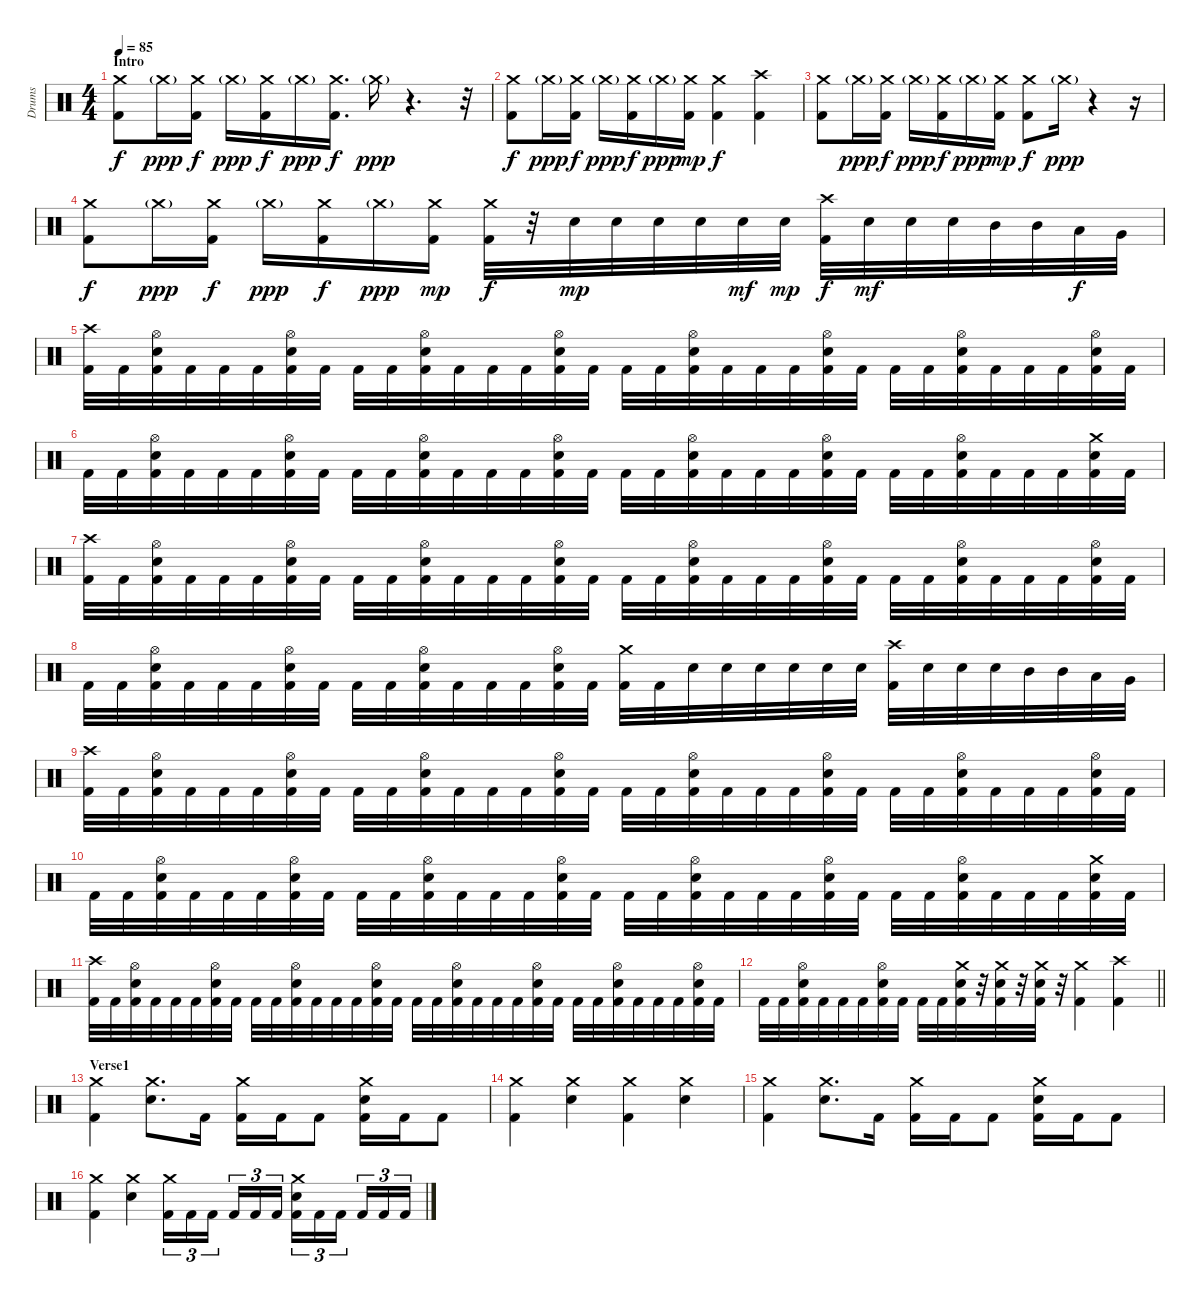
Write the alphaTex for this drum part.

\track ("Drums" "Drums") {instrument percussion}
\staff {score}
\articulation defaults
\ts (4 4)
\section ("" "Intro")
\tempo 85
\clef neutral
\ks c
("Crash medium (hit)" "Kick (hit) 2").8{dy f} "Crash medium (hit)"{g}.16{dy ppp} ("Crash medium (hit)" "Kick (hit) 2").16{dy f} "Crash medium (hit)"{g}.16{dy ppp} ("Crash medium (hit)" "Kick (hit) 2").16{dy f} "Crash medium (hit)"{g}.16{dy ppp} ("Crash medium (hit)" "Kick (hit) 2").16{d dy f} "Crash medium (hit)"{g}.16{dy ppp} r.4{d} r.32 |
("Crash medium (hit)" "Kick (hit) 2").8{dy f} "Crash medium (hit)"{g}.16{dy ppp} ("Crash medium (hit)" "Kick (hit) 2").16{dy f} "Crash medium (hit)"{g}.16{dy ppp} ("Crash medium (hit)" "Kick (hit) 2").16{dy f} "Crash medium (hit)"{g}.16{dy ppp} ("Crash medium (hit)" "Kick (hit) 2").16{dy mp} ("Crash medium (hit)" "Kick (hit) 2").4{dy f} ("Crash high (hit)" "Kick (hit) 2").4 |
("Crash medium (hit)" "Kick (hit) 2").8 "Crash medium (hit)"{g}.16{dy ppp} ("Crash medium (hit)" "Kick (hit) 2").16{dy f} "Crash medium (hit)"{g}.16{dy ppp} ("Crash medium (hit)" "Kick (hit) 2").16{dy f} "Crash medium (hit)"{g}.16{dy ppp} ("Crash medium (hit)" "Kick (hit) 2").16{dy mp} ("Crash medium (hit)" "Kick (hit) 2").8{dy f} "Crash medium (hit)"{g}.16{dy ppp} r.4 r.16 |
("Crash medium (hit)" "Kick (hit) 2").8{dy f} "Crash medium (hit)"{g}.16{dy ppp} ("Crash medium (hit)" "Kick (hit) 2").16{dy f} "Crash medium (hit)"{g}.16{dy ppp} ("Crash medium (hit)" "Kick (hit) 2").16{dy f} "Crash medium (hit)"{g}.16{dy ppp} ("Crash medium (hit)" "Kick (hit) 2").16{dy mp} ("Crash medium (hit)" "Kick (hit) 2").32{dy f} r.32 "Electric Snare (hit)".32{dy mp} "Electric Snare (hit)".32 "Electric Snare (hit)".32 "Electric Snare (hit)".32 "Electric Snare (hit)".32{dy mf} "Electric Snare (hit)".32{dy mp} ("Crash high (hit)" "Kick (hit) 2").32{dy f} "Electric Snare (hit)".32{dy mf} "Electric Snare (hit)".32 "Electric Snare (hit)".32 "Mid Tom (hit)".32 "Mid Tom (hit)".32 "Low Tom (hit)".32{dy f} "Very Low Tom (hit)".32 |
("Crash high (hit)" "Kick (hit) 2").32 "Kick (hit) 2".32 ("Hi-Hat (open)" "Electric Snare (hit)" "Kick (hit) 2").32 "Kick (hit) 2".32 "Kick (hit) 2".32 "Kick (hit) 2".32 ("Hi-Hat (open)" "Electric Snare (hit)" "Kick (hit) 2").32 "Kick (hit) 2".32 "Kick (hit) 2".32 "Kick (hit) 2".32 ("Hi-Hat (open)" "Electric Snare (hit)" "Kick (hit) 2").32 "Kick (hit) 2".32 "Kick (hit) 2".32 "Kick (hit) 2".32 ("Hi-Hat (open)" "Electric Snare (hit)" "Kick (hit) 2").32 "Kick (hit) 2".32 "Kick (hit) 2".32 "Kick (hit) 2".32 ("Hi-Hat (open)" "Electric Snare (hit)" "Kick (hit) 2").32 "Kick (hit) 2".32 "Kick (hit) 2".32 "Kick (hit) 2".32 ("Hi-Hat (open)" "Electric Snare (hit)" "Kick (hit) 2").32 "Kick (hit) 2".32 "Kick (hit) 2".32 "Kick (hit) 2".32 ("Hi-Hat (open)" "Electric Snare (hit)" "Kick (hit) 2").32 "Kick (hit) 2".32 "Kick (hit) 2".32 "Kick (hit) 2".32 ("Hi-Hat (open)" "Electric Snare (hit)" "Kick (hit) 2").32 "Kick (hit) 2".32 |
"Kick (hit) 2".32 "Kick (hit) 2".32 ("Hi-Hat (open)" "Electric Snare (hit)" "Kick (hit) 2").32 "Kick (hit) 2".32 "Kick (hit) 2".32 "Kick (hit) 2".32 ("Hi-Hat (open)" "Electric Snare (hit)" "Kick (hit) 2").32 "Kick (hit) 2".32 "Kick (hit) 2".32 "Kick (hit) 2".32 ("Hi-Hat (open)" "Electric Snare (hit)" "Kick (hit) 2").32 "Kick (hit) 2".32 "Kick (hit) 2".32 "Kick (hit) 2".32 ("Hi-Hat (open)" "Electric Snare (hit)" "Kick (hit) 2").32 "Kick (hit) 2".32 "Kick (hit) 2".32 "Kick (hit) 2".32 ("Hi-Hat (open)" "Electric Snare (hit)" "Kick (hit) 2").32 "Kick (hit) 2".32 "Kick (hit) 2".32 "Kick (hit) 2".32 ("Hi-Hat (open)" "Electric Snare (hit)" "Kick (hit) 2").32 "Kick (hit) 2".32 "Kick (hit) 2".32 "Kick (hit) 2".32 ("Hi-Hat (open)" "Electric Snare (hit)" "Kick (hit) 2").32 "Kick (hit) 2".32 "Kick (hit) 2".32 "Kick (hit) 2".32 ("Crash medium (hit)" "Electric Snare (hit)" "Kick (hit) 2").32 "Kick (hit) 2".32 |
("Crash high (hit)" "Kick (hit) 2").32 "Kick (hit) 2".32 ("Hi-Hat (open)" "Electric Snare (hit)" "Kick (hit) 2").32 "Kick (hit) 2".32 "Kick (hit) 2".32 "Kick (hit) 2".32 ("Hi-Hat (open)" "Electric Snare (hit)" "Kick (hit) 2").32 "Kick (hit) 2".32 "Kick (hit) 2".32 "Kick (hit) 2".32 ("Hi-Hat (open)" "Electric Snare (hit)" "Kick (hit) 2").32 "Kick (hit) 2".32 "Kick (hit) 2".32 "Kick (hit) 2".32 ("Hi-Hat (open)" "Electric Snare (hit)" "Kick (hit) 2").32 "Kick (hit) 2".32 "Kick (hit) 2".32 "Kick (hit) 2".32 ("Hi-Hat (open)" "Electric Snare (hit)" "Kick (hit) 2").32 "Kick (hit) 2".32 "Kick (hit) 2".32 "Kick (hit) 2".32 ("Hi-Hat (open)" "Electric Snare (hit)" "Kick (hit) 2").32 "Kick (hit) 2".32 "Kick (hit) 2".32 "Kick (hit) 2".32 ("Hi-Hat (open)" "Electric Snare (hit)" "Kick (hit) 2").32 "Kick (hit) 2".32 "Kick (hit) 2".32 "Kick (hit) 2".32 ("Hi-Hat (open)" "Electric Snare (hit)" "Kick (hit) 2").32 "Kick (hit) 2".32 |
"Kick (hit) 2".32 "Kick (hit) 2".32 ("Hi-Hat (open)" "Electric Snare (hit)" "Kick (hit) 2").32 "Kick (hit) 2".32 "Kick (hit) 2".32 "Kick (hit) 2".32 ("Hi-Hat (open)" "Electric Snare (hit)" "Kick (hit) 2").32 "Kick (hit) 2".32 "Kick (hit) 2".32 "Kick (hit) 2".32 ("Hi-Hat (open)" "Electric Snare (hit)" "Kick (hit) 2").32 "Kick (hit) 2".32 "Kick (hit) 2".32 "Kick (hit) 2".32 ("Hi-Hat (open)" "Electric Snare (hit)" "Kick (hit) 2").32 "Kick (hit) 2".32 ("Crash medium (hit)" "Kick (hit) 2").32 "Kick (hit) 2".32 "Electric Snare (hit)".32 "Electric Snare (hit)".32 "Electric Snare (hit)".32 "Electric Snare (hit)".32 "Electric Snare (hit)".32 "Electric Snare (hit)".32 ("Crash high (hit)" "Kick (hit) 2").32 "Electric Snare (hit)".32 "Electric Snare (hit)".32 "Electric Snare (hit)".32 "Mid Tom (hit)".32 "Mid Tom (hit)".32 "Low Tom (hit)".32 "Very Low Tom (hit)".32 |
("Crash high (hit)" "Kick (hit) 2").32 "Kick (hit) 2".32 ("Hi-Hat (open)" "Electric Snare (hit)" "Kick (hit) 2").32 "Kick (hit) 2".32 "Kick (hit) 2".32 "Kick (hit) 2".32 ("Hi-Hat (open)" "Electric Snare (hit)" "Kick (hit) 2").32 "Kick (hit) 2".32 "Kick (hit) 2".32 "Kick (hit) 2".32 ("Hi-Hat (open)" "Electric Snare (hit)" "Kick (hit) 2").32 "Kick (hit) 2".32 "Kick (hit) 2".32 "Kick (hit) 2".32 ("Hi-Hat (open)" "Electric Snare (hit)" "Kick (hit) 2").32 "Kick (hit) 2".32 "Kick (hit) 2".32 "Kick (hit) 2".32 ("Hi-Hat (open)" "Electric Snare (hit)" "Kick (hit) 2").32 "Kick (hit) 2".32 "Kick (hit) 2".32 "Kick (hit) 2".32 ("Hi-Hat (open)" "Electric Snare (hit)" "Kick (hit) 2").32 "Kick (hit) 2".32 "Kick (hit) 2".32 "Kick (hit) 2".32 ("Hi-Hat (open)" "Electric Snare (hit)" "Kick (hit) 2").32 "Kick (hit) 2".32 "Kick (hit) 2".32 "Kick (hit) 2".32 ("Hi-Hat (open)" "Electric Snare (hit)" "Kick (hit) 2").32 "Kick (hit) 2".32 |
"Kick (hit) 2".32 "Kick (hit) 2".32 ("Hi-Hat (open)" "Electric Snare (hit)" "Kick (hit) 2").32 "Kick (hit) 2".32 "Kick (hit) 2".32 "Kick (hit) 2".32 ("Hi-Hat (open)" "Electric Snare (hit)" "Kick (hit) 2").32 "Kick (hit) 2".32 "Kick (hit) 2".32 "Kick (hit) 2".32 ("Hi-Hat (open)" "Electric Snare (hit)" "Kick (hit) 2").32 "Kick (hit) 2".32 "Kick (hit) 2".32 "Kick (hit) 2".32 ("Hi-Hat (open)" "Electric Snare (hit)" "Kick (hit) 2").32 "Kick (hit) 2".32 "Kick (hit) 2".32 "Kick (hit) 2".32 ("Hi-Hat (open)" "Electric Snare (hit)" "Kick (hit) 2").32 "Kick (hit) 2".32 "Kick (hit) 2".32 "Kick (hit) 2".32 ("Hi-Hat (open)" "Electric Snare (hit)" "Kick (hit) 2").32 "Kick (hit) 2".32 "Kick (hit) 2".32 "Kick (hit) 2".32 ("Hi-Hat (open)" "Electric Snare (hit)" "Kick (hit) 2").32 "Kick (hit) 2".32 "Kick (hit) 2".32 "Kick (hit) 2".32 ("Crash medium (hit)" "Electric Snare (hit)" "Kick (hit) 2").32 "Kick (hit) 2".32 |
("Crash high (hit)" "Kick (hit) 2").32 "Kick (hit) 2".32 ("Hi-Hat (open)" "Electric Snare (hit)" "Kick (hit) 2").32 "Kick (hit) 2".32 "Kick (hit) 2".32 "Kick (hit) 2".32 ("Hi-Hat (open)" "Electric Snare (hit)" "Kick (hit) 2").32 "Kick (hit) 2".32 "Kick (hit) 2".32 "Kick (hit) 2".32 ("Hi-Hat (open)" "Electric Snare (hit)" "Kick (hit) 2").32 "Kick (hit) 2".32 "Kick (hit) 2".32 "Kick (hit) 2".32 ("Hi-Hat (open)" "Electric Snare (hit)" "Kick (hit) 2").32 "Kick (hit) 2".32 "Kick (hit) 2".32 "Kick (hit) 2".32 ("Hi-Hat (open)" "Electric Snare (hit)" "Kick (hit) 2").32 "Kick (hit) 2".32 "Kick (hit) 2".32 "Kick (hit) 2".32 ("Hi-Hat (open)" "Electric Snare (hit)" "Kick (hit) 2").32 "Kick (hit) 2".32 "Kick (hit) 2".32 "Kick (hit) 2".32 ("Hi-Hat (open)" "Electric Snare (hit)" "Kick (hit) 2").32 "Kick (hit) 2".32 "Kick (hit) 2".32 "Kick (hit) 2".32 ("Hi-Hat (open)" "Electric Snare (hit)" "Kick (hit) 2").32 "Kick (hit) 2".32 |
\barLineRight lightlight "Kick (hit) 2".32 "Kick (hit) 2".32
("Hi-Hat (open)" "Electric Snare (hit)" "Kick (hit) 2").32 "Kick (hit) 2".32 "Kick (hit) 2".32 "Kick (hit) 2".32 ("Hi-Hat (open)" "Electric Snare (hit)" "Kick (hit) 2").32 "Kick (hit) 2".32 "Kick (hit) 2".32 "Kick (hit) 2".32 ("Crash medium (hit)" "Electric Snare (hit)" "Kick (hit) 2").32 r.32 ("Crash medium (hit)" "Electric Snare (hit)" "Kick (hit) 2").32 r.32 ("Crash medium (hit)" "Electric Snare (hit)" "Kick (hit) 2").32 r.32 ("Crash medium (hit)" "Kick (hit) 2").4 ("Crash high (hit)" "Kick (hit) 2").4 |
\section ("" "Verse1")
("Crash medium (hit)" "Kick (hit) 2").4 ("Crash medium (hit)" "Electric Snare (hit)").8{d} "Kick (hit) 2".16 ("Crash medium (hit)" "Kick (hit) 2").16 "Kick (hit) 2".16 "Kick (hit) 2".8 ("Crash medium (hit)" "Electric Snare (hit)" "Kick (hit) 2").16 "Kick (hit) 2".16 "Kick (hit) 2".8 |
("Crash medium (hit)" "Kick (hit) 2").4 ("Crash medium (hit)" "Electric Snare (hit)").4 ("Crash medium (hit)" "Kick (hit) 2").4 ("Crash medium (hit)" "Electric Snare (hit)").4 |
("Crash medium (hit)" "Kick (hit) 2").4 ("Crash medium (hit)" "Electric Snare (hit)").8{d} "Kick (hit) 2".16 ("Crash medium (hit)" "Kick (hit) 2").16 "Kick (hit) 2".16 "Kick (hit) 2".8 ("Crash medium (hit)" "Electric Snare (hit)" "Kick (hit) 2").16 "Kick (hit) 2".16 "Kick (hit) 2".8 |
("Crash medium (hit)" "Kick (hit) 2").4 ("Crash medium (hit)" "Electric Snare (hit)").4 ("Crash medium (hit)" "Kick (hit) 2").16{tu (3 2)} "Kick (hit) 2".16{tu (3 2)} "Kick (hit) 2".16{tu (3 2)} "Kick (hit) 2".16{tu (3 2)} "Kick (hit) 2".16{tu (3 2)} "Kick (hit) 2".16{tu (3 2)} ("Crash medium (hit)" "Electric Snare (hit)" "Kick (hit) 2").16{tu (3 2)} "Kick (hit) 2".16{tu (3 2)} "Kick (hit) 2".16{tu (3 2)} "Kick (hit) 2".16{tu (3 2)} "Kick (hit) 2".16{tu (3 2)} "Kick (hit) 2".16{tu (3 2)}
